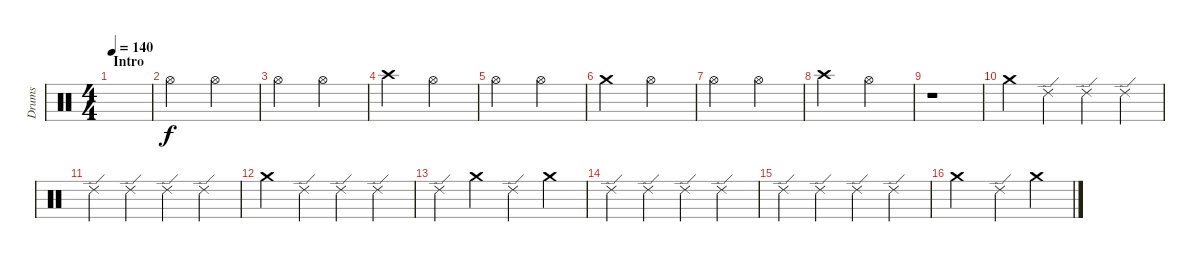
\track ("Drums" "Drums") {instrument percussion}
\staff {score}
\articulation defaults
\ts (4 4)
\section ("" "Intro")
\tempo 140
\clef neutral
\ks c
|
"Hi-Hat (open)".2 "Hi-Hat (open)".2 |
"Hi-Hat (open)".2 "Hi-Hat (open)".2 |
"Crash high (hit)".2 "Hi-Hat (open)".2 |
"Hi-Hat (open)".2 "Hi-Hat (open)".2 |
"Crash medium (hit)".2 "Hi-Hat (open)".2 |
"Hi-Hat (open)".2 "Hi-Hat (open)".2 |
"Crash high (hit)".2 "Hi-Hat (open)".2 |
r.1 |
"Crash medium (hit)".4 "Ride (edge) 2".4 "Ride (edge) 2".4 "Ride (edge) 2".4 |
"Ride (edge) 2".4 "Ride (edge) 2".4 "Ride (edge) 2".4 "Ride (edge) 2".4 |
"Crash medium (hit)".4 "Ride (edge) 2".4 "Ride (edge) 2".4 "Ride (edge) 2".4 |
"Ride (edge) 2".4 "Crash medium (hit)".4 "Ride (edge) 2".4 "Crash medium (hit)".4 |
"Ride (edge) 2".4 "Ride (edge) 2".4 "Ride (edge) 2".4 "Ride (edge) 2".4 |
"Ride (edge) 2".4 "Ride (edge) 2".4 "Ride (edge) 2".4 "Ride (edge) 2".4 |
"Crash medium (hit)".2 "Ride (edge) 2".4 "Crash medium (hit)".4
